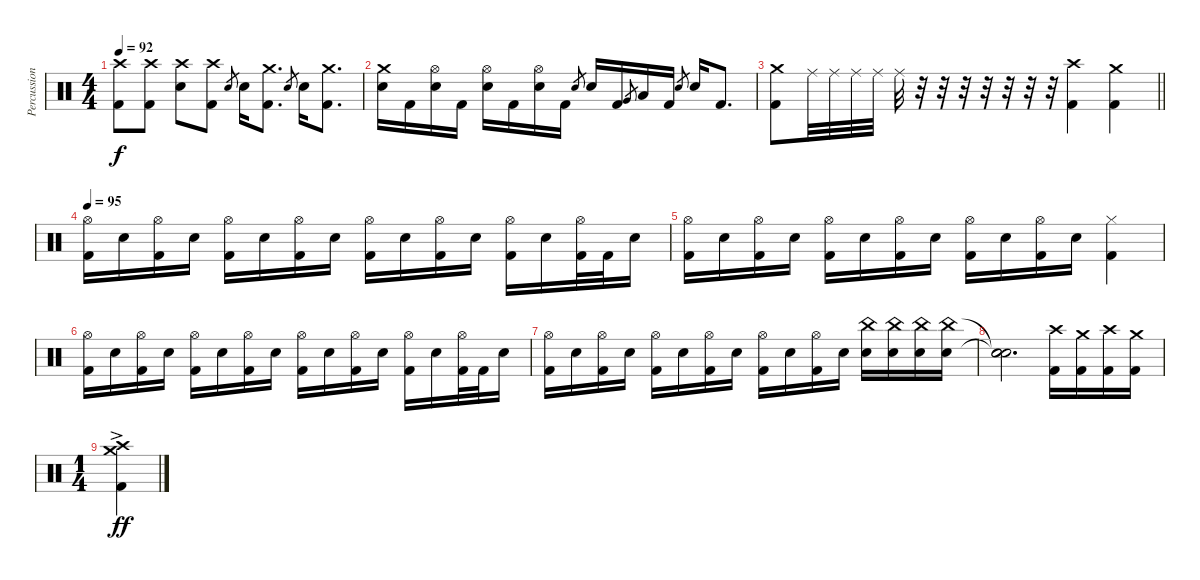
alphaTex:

\track ("Percussion (Moose)" "Percussion") {instrument percussion}
\staff {score}
\articulation defaults
\ts (4 4)
\tempo 92
\clef neutral
\ks c
("Crash high (hit)" "Kick (hit) 2").8{dy f} ("Crash high (hit)" "Kick (hit) 2").8 ("Crash high (hit)" "Electric Snare (hit)").8 ("Crash high (hit)" "Kick (hit) 2").8 "Electric Snare (hit)".8{gr} "Electric Snare (hit)".16 ("Crash medium (hit)" "Kick (hit) 2").8{d} "Electric Snare (hit)".8{gr} "Electric Snare (hit)".16 ("Crash medium (hit)" "Kick (hit) 2").8{d} |
("Crash medium (hit)" "Electric Snare (hit)").16 "Kick (hit) 2".16 ("Hi-Hat (open)" "Electric Snare (hit)").16 "Kick (hit) 2".16 ("Hi-Hat (open)" "Electric Snare (hit)").16 "Kick (hit) 2".16 ("Hi-Hat (open)" "Electric Snare (hit)").16 "Kick (hit) 2".16 "Electric Snare (hit)".8{gr} "Electric Snare (hit)".16 "Kick (hit) 2".16 "Very Low Tom (hit)".8{gr} "Low Floor Tom (hit)".16 "Kick (hit) 2".16 "Electric Snare (hit)".8{gr} "Electric Snare (hit)".16 "Kick (hit) 2".8{d} |
\barLineRight lightlight
("Crash medium (hit)" "Kick (hit) 2").8 "Ride (middle)".32 "Ride (middle)".32 "Ride (middle)".32 "Ride (middle)".32 "Ride (middle)".32 r.32 r.32 r.32 r.32 r.32 r.32 r.32 ("Crash high (hit)" "Kick (hit) 2").4 ("Crash medium (hit)" "Kick (hit) 2").4 |
\tempo 95
("Hi-Hat (open)" "Kick (hit) 2").16 "Electric Snare (hit)".16 ("Hi-Hat (open)" "Kick (hit) 2").16 "Electric Snare (hit)".16 ("Hi-Hat (open)" "Kick (hit) 2").16 "Electric Snare (hit)".16 ("Hi-Hat (open)" "Kick (hit) 2").16 "Electric Snare (hit)".16 ("Hi-Hat (open)" "Kick (hit) 2").16 "Electric Snare (hit)".16 ("Hi-Hat (open)" "Kick (hit) 2").16 "Electric Snare (hit)".16 ("Hi-Hat (open)" "Kick (hit) 2").16 "Electric Snare (hit)".16 ("Hi-Hat (open)" "Kick (hit) 2").32 "Kick (hit) 2".32 "Electric Snare (hit)".16 |
("Hi-Hat (open)" "Kick (hit) 2").16 "Electric Snare (hit)".16 ("Hi-Hat (open)" "Kick (hit) 2").16 "Electric Snare (hit)".16 ("Hi-Hat (open)" "Kick (hit) 2").16 "Electric Snare (hit)".16 ("Hi-Hat (open)" "Kick (hit) 2").16 "Electric Snare (hit)".16 ("Hi-Hat (open)" "Kick (hit) 2").16 "Electric Snare (hit)".16 ("Hi-Hat (open)" "Kick (hit) 2").16 "Electric Snare (hit)".16 ("Hi-Hat (closed)" "Kick (hit) 2").4 |
("Hi-Hat (open)" "Kick (hit) 2").16 "Electric Snare (hit)".16 ("Hi-Hat (open)" "Kick (hit) 2").16 "Electric Snare (hit)".16 ("Hi-Hat (open)" "Kick (hit) 2").16 "Electric Snare (hit)".16 ("Hi-Hat (open)" "Kick (hit) 2").16 "Electric Snare (hit)".16 ("Hi-Hat (open)" "Kick (hit) 2").16 "Electric Snare (hit)".16 ("Hi-Hat (open)" "Kick (hit) 2").16 "Electric Snare (hit)".16 ("Hi-Hat (open)" "Kick (hit) 2").16 "Electric Snare (hit)".16 ("Hi-Hat (open)" "Kick (hit) 2").32 "Kick (hit) 2".32 "Electric Snare (hit)".16 |
("Hi-Hat (open)" "Kick (hit) 2").16 "Electric Snare (hit)".16 ("Hi-Hat (open)" "Kick (hit) 2").16 "Electric Snare (hit)".16 ("Hi-Hat (open)" "Kick (hit) 2").16 "Electric Snare (hit)".16 ("Hi-Hat (open)" "Kick (hit) 2").16 "Electric Snare (hit)".16 ("Hi-Hat (open)" "Kick (hit) 2").16 "Electric Snare (hit)".16 ("Hi-Hat (open)" "Kick (hit) 2").16 "Electric Snare (hit)".16 ("China (hit)" "Electric Snare (hit)").16 ("China (hit)" "Electric Snare (hit)").16 ("China (hit)" "Electric Snare (hit)").16 ("China (hit)" "Electric Snare (hit)").16 |
("Snare (hit)"{t} "Snare (hit)"{t} "Snare (hit)").2{d} ("Crash high (hit)" "Kick (hit) 2").16 ("Crash medium (hit)" "Kick (hit) 2").16 ("Crash high (hit)" "Kick (hit) 2").16 ("Crash medium (hit)" "Kick (hit) 2").16 |
\ts (1 4)
("Crash high (hit)" "Crash medium (hit)"{ac} "Kick (hit) 2").4{dy ff}
